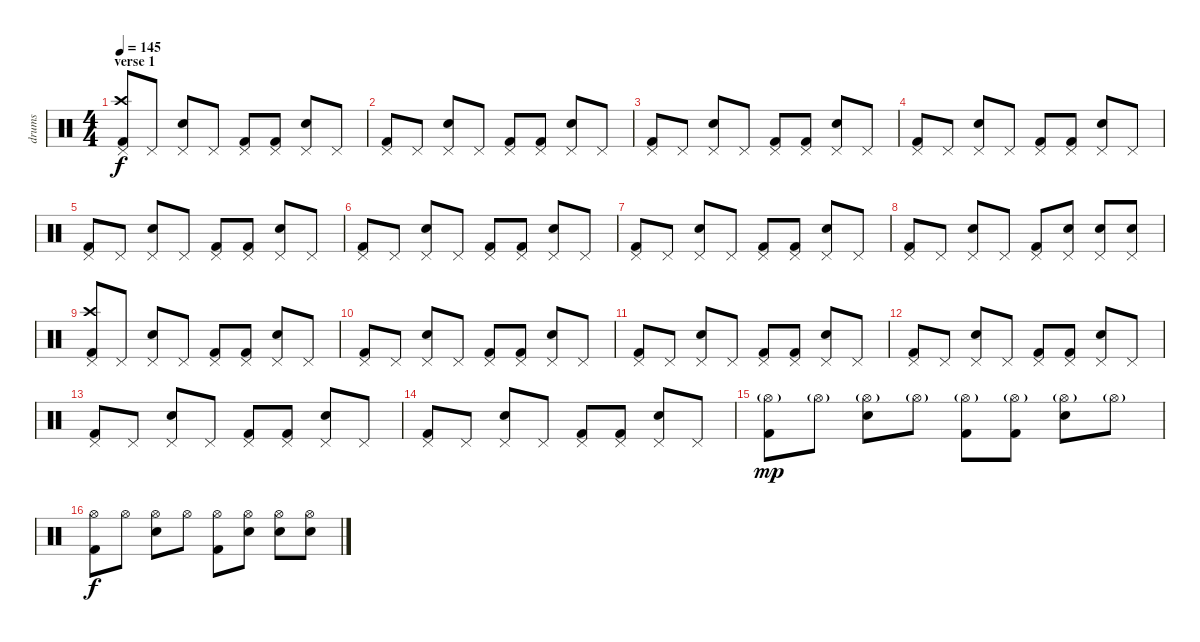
\track ("drums" "drums") {instrument percussion}
\staff {score}
\articulation defaults
\ts (4 4)
\section ("" "verse 1")
\tempo 145
\clef neutral
\ks c
("Kick (hit) 2" "Crash high (hit)" "Pedal Hi-Hat (hit)").8{dy f} "Pedal Hi-Hat (hit)".8 ("Snare (hit) 2" "Pedal Hi-Hat (hit)").8 "Pedal Hi-Hat (hit)".8 ("Kick (hit) 2" "Pedal Hi-Hat (hit)").8 ("Kick (hit) 2" "Pedal Hi-Hat (hit)").8 ("Snare (hit) 2" "Pedal Hi-Hat (hit)").8 "Pedal Hi-Hat (hit)".8 |
("Kick (hit) 2" "Pedal Hi-Hat (hit)").8 "Pedal Hi-Hat (hit)".8 ("Snare (hit) 2" "Pedal Hi-Hat (hit)").8 "Pedal Hi-Hat (hit)".8 ("Kick (hit) 2" "Pedal Hi-Hat (hit)").8 ("Kick (hit) 2" "Pedal Hi-Hat (hit)").8 ("Snare (hit) 2" "Pedal Hi-Hat (hit)").8 "Pedal Hi-Hat (hit)".8 |
("Kick (hit) 2" "Pedal Hi-Hat (hit)").8 "Pedal Hi-Hat (hit)".8 ("Snare (hit) 2" "Pedal Hi-Hat (hit)").8 "Pedal Hi-Hat (hit)".8 ("Kick (hit) 2" "Pedal Hi-Hat (hit)").8 ("Kick (hit) 2" "Pedal Hi-Hat (hit)").8 ("Snare (hit) 2" "Pedal Hi-Hat (hit)").8 "Pedal Hi-Hat (hit)".8 |
("Kick (hit) 2" "Pedal Hi-Hat (hit)").8 "Pedal Hi-Hat (hit)".8 ("Snare (hit) 2" "Pedal Hi-Hat (hit)").8 "Pedal Hi-Hat (hit)".8 ("Kick (hit) 2" "Pedal Hi-Hat (hit)").8 ("Kick (hit) 2" "Pedal Hi-Hat (hit)").8 ("Snare (hit) 2" "Pedal Hi-Hat (hit)").8 "Pedal Hi-Hat (hit)".8 |
("Kick (hit) 2" "Pedal Hi-Hat (hit)").8 "Pedal Hi-Hat (hit)".8 ("Snare (hit) 2" "Pedal Hi-Hat (hit)").8 "Pedal Hi-Hat (hit)".8 ("Kick (hit) 2" "Pedal Hi-Hat (hit)").8 ("Kick (hit) 2" "Pedal Hi-Hat (hit)").8 ("Snare (hit) 2" "Pedal Hi-Hat (hit)").8 "Pedal Hi-Hat (hit)".8 |
("Kick (hit) 2" "Pedal Hi-Hat (hit)").8 "Pedal Hi-Hat (hit)".8 ("Snare (hit) 2" "Pedal Hi-Hat (hit)").8 "Pedal Hi-Hat (hit)".8 ("Kick (hit) 2" "Pedal Hi-Hat (hit)").8 ("Kick (hit) 2" "Pedal Hi-Hat (hit)").8 ("Snare (hit) 2" "Pedal Hi-Hat (hit)").8 "Pedal Hi-Hat (hit)".8 |
("Kick (hit) 2" "Pedal Hi-Hat (hit)").8 "Pedal Hi-Hat (hit)".8 ("Snare (hit) 2" "Pedal Hi-Hat (hit)").8 "Pedal Hi-Hat (hit)".8 ("Kick (hit) 2" "Pedal Hi-Hat (hit)").8 ("Kick (hit) 2" "Pedal Hi-Hat (hit)").8 ("Snare (hit) 2" "Pedal Hi-Hat (hit)").8 "Pedal Hi-Hat (hit)".8 |
("Kick (hit) 2" "Pedal Hi-Hat (hit)").8 "Pedal Hi-Hat (hit)".8 ("Snare (hit) 2" "Pedal Hi-Hat (hit)").8 "Pedal Hi-Hat (hit)".8 ("Kick (hit) 2" "Pedal Hi-Hat (hit)").8 ("Snare (hit) 2" "Pedal Hi-Hat (hit)").8 ("Snare (hit) 2" "Pedal Hi-Hat (hit)").8 ("Snare (hit) 2" "Pedal Hi-Hat (hit)").8 |
("Kick (hit) 2" "Crash high (hit)" "Pedal Hi-Hat (hit)").8 "Pedal Hi-Hat (hit)".8 ("Snare (hit) 2" "Pedal Hi-Hat (hit)").8 "Pedal Hi-Hat (hit)".8 ("Kick (hit) 2" "Pedal Hi-Hat (hit)").8 ("Kick (hit) 2" "Pedal Hi-Hat (hit)").8 ("Snare (hit) 2" "Pedal Hi-Hat (hit)").8 "Pedal Hi-Hat (hit)".8 |
("Kick (hit) 2" "Pedal Hi-Hat (hit)").8 "Pedal Hi-Hat (hit)".8 ("Snare (hit) 2" "Pedal Hi-Hat (hit)").8 "Pedal Hi-Hat (hit)".8 ("Kick (hit) 2" "Pedal Hi-Hat (hit)").8 ("Kick (hit) 2" "Pedal Hi-Hat (hit)").8 ("Snare (hit) 2" "Pedal Hi-Hat (hit)").8 "Pedal Hi-Hat (hit)".8 |
("Kick (hit) 2" "Pedal Hi-Hat (hit)").8 "Pedal Hi-Hat (hit)".8 ("Snare (hit) 2" "Pedal Hi-Hat (hit)").8 "Pedal Hi-Hat (hit)".8 ("Kick (hit) 2" "Pedal Hi-Hat (hit)").8 ("Kick (hit) 2" "Pedal Hi-Hat (hit)").8 ("Snare (hit) 2" "Pedal Hi-Hat (hit)").8 "Pedal Hi-Hat (hit)".8 |
("Kick (hit) 2" "Pedal Hi-Hat (hit)").8 "Pedal Hi-Hat (hit)".8 ("Snare (hit) 2" "Pedal Hi-Hat (hit)").8 "Pedal Hi-Hat (hit)".8 ("Kick (hit) 2" "Pedal Hi-Hat (hit)").8 ("Kick (hit) 2" "Pedal Hi-Hat (hit)").8 ("Snare (hit) 2" "Pedal Hi-Hat (hit)").8 "Pedal Hi-Hat (hit)".8 |
("Kick (hit) 2" "Pedal Hi-Hat (hit)").8 "Pedal Hi-Hat (hit)".8 ("Snare (hit) 2" "Pedal Hi-Hat (hit)").8 "Pedal Hi-Hat (hit)".8 ("Kick (hit) 2" "Pedal Hi-Hat (hit)").8 ("Kick (hit) 2" "Pedal Hi-Hat (hit)").8 ("Snare (hit) 2" "Pedal Hi-Hat (hit)").8 "Pedal Hi-Hat (hit)".8 |
("Kick (hit) 2" "Pedal Hi-Hat (hit)").8 "Pedal Hi-Hat (hit)".8 ("Snare (hit) 2" "Pedal Hi-Hat (hit)").8 "Pedal Hi-Hat (hit)".8 ("Kick (hit) 2" "Pedal Hi-Hat (hit)").8 ("Kick (hit) 2" "Pedal Hi-Hat (hit)").8 ("Snare (hit) 2" "Pedal Hi-Hat (hit)").8 "Pedal Hi-Hat (hit)".8 |
("Kick (hit) 2" "Hi-Hat (open)"{g}).8{dy mp} "Hi-Hat (open)"{g}.8 ("Snare (hit) 2" "Hi-Hat (open)"{g}).8 "Hi-Hat (open)"{g}.8 ("Kick (hit) 2" "Hi-Hat (open)"{g}).8 ("Kick (hit) 2" "Hi-Hat (open)"{g}).8 ("Snare (hit) 2" "Hi-Hat (open)"{g}).8 "Hi-Hat (open)"{g}.8 |
("Kick (hit) 2" "Hi-Hat (open)").8{dy f} "Hi-Hat (open)".8 ("Snare (hit) 2" "Hi-Hat (open)").8 "Hi-Hat (open)".8 ("Kick (hit) 2" "Hi-Hat (open)").8 ("Snare (hit) 2" "Hi-Hat (open)").8 ("Snare (hit) 2" "Hi-Hat (open)").8 ("Snare (hit) 2" "Hi-Hat (open)").8
